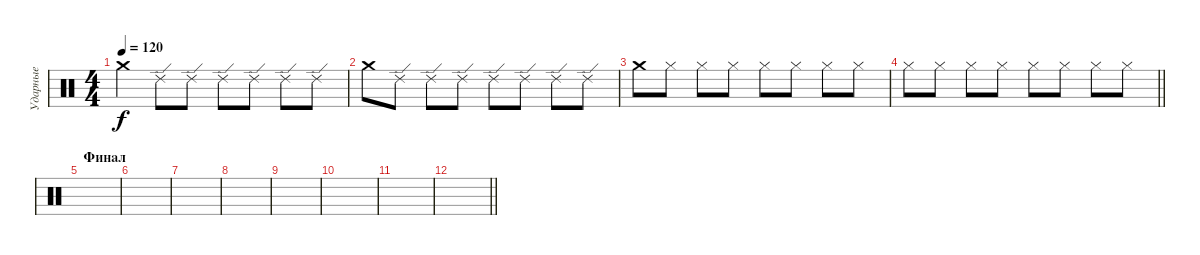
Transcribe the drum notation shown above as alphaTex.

\track ("Ударные" "Ударные") {instrument percussion}
\staff {score}
\articulation defaults
\ts (4 4)
\tempo 120
\clef neutral
\ks c "Crash medium (hit)".4{dy f} "Ride (edge) 2".8 "Ride (edge) 2".8 "Ride (edge) 2".8 "Ride (edge) 2".8 "Ride (edge) 2".8 "Ride (edge) 2".8
|
"Crash medium (hit)".8 "Ride (edge) 2".8 "Ride (edge) 2".8 "Ride (edge) 2".8 "Ride (edge) 2".8 "Ride (edge) 2".8 "Ride (edge) 2".8 "Ride (edge) 2".8 |
"Crash medium (hit)".8 "Hi-Hat (closed)".8 "Hi-Hat (closed)".8 "Hi-Hat (closed)".8 "Hi-Hat (closed)".8 "Hi-Hat (closed)".8 "Hi-Hat (closed)".8 "Hi-Hat (closed)".8 |
\barLineRight lightlight "Hi-Hat (closed)".8 "Hi-Hat (closed)".8 "Hi-Hat (closed)".8 "Hi-Hat (closed)".8 "Hi-Hat (closed)".8 "Hi-Hat (closed)".8 "Hi-Hat (closed)".8 "Hi-Hat (closed)".8
|
\section ("" "Финал")
|
|
|
|
|
|
|
\barLineRight lightlight
